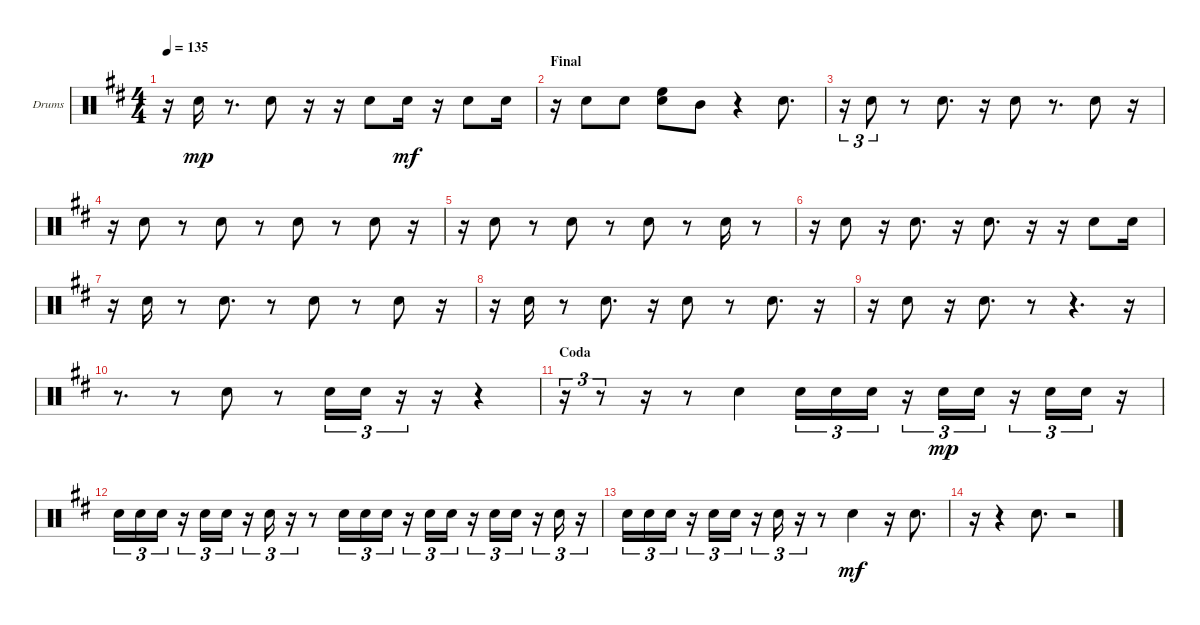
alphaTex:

\bracketExtendMode groupsimilarinstruments
\firstSystemTrackNameOrientation horizontal
\otherSystemsTrackNameOrientation horizontal
\track ("Snare" "Drums") {instrument percussion}
\staff {score}
\articulation defaults
\ts (4 4)
\tempo 135
\clef neutral
\ks d
r.16{dy mp} "Snare (hit) 2".16 r.8{d} "Snare (hit) 2".8 r.16 r.16 "Snare (hit) 2".8 "Snare (hit) 2".16{dy mf} r.16 "Snare (hit) 2".8 "Snare (hit) 2".16 |
\section ("" "Final")
r.16 "Snare (hit) 2".8 "Snare (hit) 2".8 ("Snare (hit) 2" "High Floor Tom (hit)").8 "Mid Tom (hit)".8 r.4 "Snare (hit) 2".8{d} |
r.16{tu (3 2)} "Snare (hit) 2".8{tu (3 2)} r.8 "Snare (hit) 2".8{d} r.16 "Snare (hit) 2".8 r.8{d} "Snare (hit) 2".8 r.16 |
r.16 "Snare (hit) 2".8 r.8 "Snare (hit) 2".8 r.8 "Snare (hit) 2".8 r.8 "Snare (hit) 2".8 r.16 |
r.16 "Snare (hit) 2".8 r.8 "Snare (hit) 2".8 r.8 "Snare (hit) 2".8 r.8 "Snare (hit) 2".16 r.8 |
r.16 "Snare (hit) 2".8 r.16 "Snare (hit) 2".8{d} r.16 "Snare (hit) 2".8{d} r.16 r.16 "Snare (hit) 2".8 "Snare (hit) 2".16 |
r.16 "Snare (hit) 2".16 r.8 "Snare (hit) 2".8{d} r.8 "Snare (hit) 2".8 r.8 "Snare (hit) 2".8 r.16 |
r.16 "Snare (hit) 2".16 r.8 "Snare (hit) 2".8{d} r.16 "Snare (hit) 2".8 r.8 "Snare (hit) 2".8{d} r.16 |
r.16 "Snare (hit) 2".8 r.16 "Snare (hit) 2".8{d} r.8 r.4{d} r.16 |
r.8{d} r.8 "Snare (hit) 2".8 r.8 "Snare (hit) 2".16{tu (3 2)} "Snare (hit) 2".16{tu (3 2)} r.16{tu (3 2)} r.16 r.4 |
\section ("" "Coda")
r.16{tu (3 2)} r.8{tu (3 2)} r.16 r.8 "Snare (hit) 2".4 "Snare (hit) 2".16{tu (3 2)} "Snare (hit) 2".16{tu (3 2)} "Snare (hit) 2".16{tu (3 2)} r.16{tu (3 2)} "Snare (hit) 2".16{tu (3 2) dy mp} "Snare (hit) 2".16{tu (3 2)} r.16{tu (3 2)} "Snare (hit) 2".16{tu (3 2)} "Snare (hit) 2".16{tu (3 2)} r.16 |
"Snare (hit) 2".16{tu (3 2)} "Snare (hit) 2".16{tu (3 2)} "Snare (hit) 2".16{tu (3 2)} r.16{tu (3 2)} "Snare (hit) 2".16{tu (3 2)} "Snare (hit) 2".16{tu (3 2)} r.16{tu (3 2)} "Snare (hit) 2".16{tu (3 2)} r.16{tu (3 2)} r.8 "Snare (hit) 2".16{tu (3 2)} "Snare (hit) 2".16{tu (3 2)} "Snare (hit) 2".16{tu (3 2)} r.16{tu (3 2)} "Snare (hit) 2".16{tu (3 2)} "Snare (hit) 2".16{tu (3 2)} r.16{tu (3 2)} "Snare (hit) 2".16{tu (3 2)} "Snare (hit) 2".16{tu (3 2)} r.16{tu (3 2)} "Snare (hit) 2".16{tu (3 2)} r.16{tu (3 2)} |
"Snare (hit) 2".16{tu (3 2)} "Snare (hit) 2".16{tu (3 2)} "Snare (hit) 2".16{tu (3 2)} r.16{tu (3 2)} "Snare (hit) 2".16{tu (3 2)} "Snare (hit) 2".16{tu (3 2)} r.16{tu (3 2)} "Snare (hit) 2".16{tu (3 2)} r.16{tu (3 2)} r.8 "Snare (hit) 2".4{dy mf} r.16 "Snare (hit) 2".8{d} |
r.16 r.4 "Snare (hit) 2".8{d} r.2
